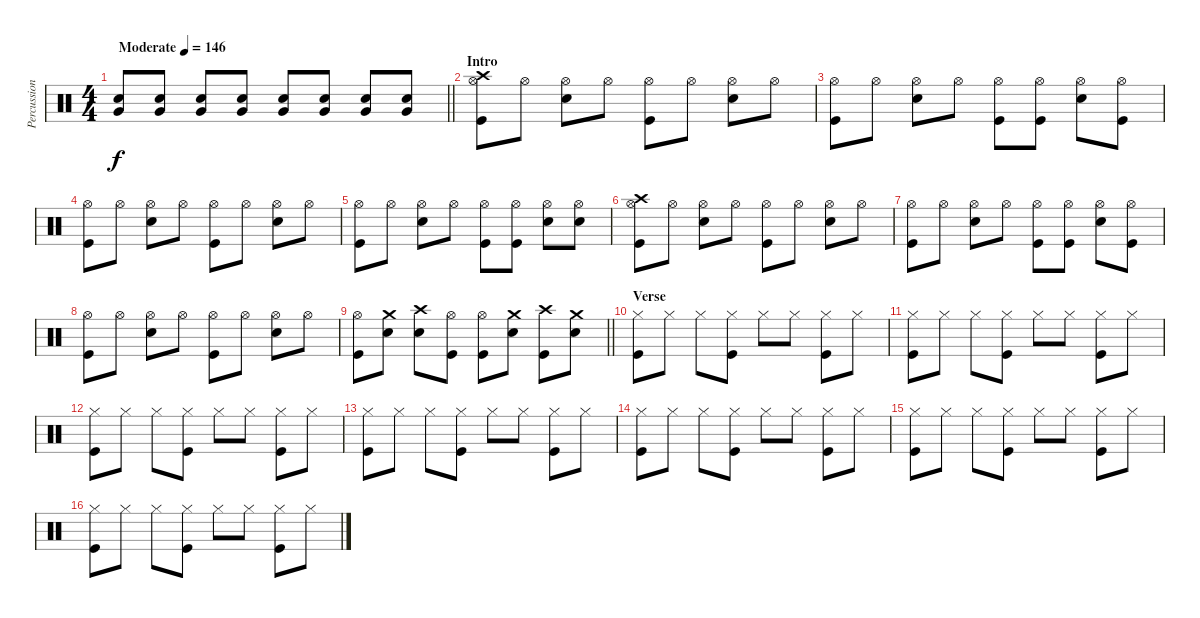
\track ("Percussion" "Percussion") {instrument percussion}
\staff {score}
\articulation defaults
\ts (4 4)
\tempo (146 "Moderate")
\clef neutral
\barLineRight lightlight
\ks c
("Snare (hit) 2" "Very Low Tom (hit)").8{dy f} ("Snare (hit) 2" "Very Low Tom (hit)").8 ("Snare (hit) 2" "Very Low Tom (hit)").8 ("Snare (hit) 2" "Very Low Tom (hit)").8 ("Snare (hit) 2" "Very Low Tom (hit)").8 ("Snare (hit) 2" "Very Low Tom (hit)").8 ("Snare (hit) 2" "Very Low Tom (hit)").8 ("Snare (hit) 2" "Very Low Tom (hit)").8 |
\section ("" "Intro")
("Crash high (hit)" "Hi-Hat (open)" "Kick (hit)").8 "Hi-Hat (open)".8 ("Hi-Hat (open)" "Snare (hit) 2").8 "Hi-Hat (open)".8 ("Hi-Hat (open)" "Kick (hit)").8 "Hi-Hat (open)".8 ("Hi-Hat (open)" "Snare (hit) 2").8 "Hi-Hat (open)".8 |
("Hi-Hat (open)" "Kick (hit)").8 "Hi-Hat (open)".8 ("Hi-Hat (open)" "Snare (hit) 2").8 "Hi-Hat (open)".8 ("Hi-Hat (open)" "Kick (hit)").8 ("Hi-Hat (open)" "Kick (hit)").8 ("Hi-Hat (open)" "Snare (hit) 2").8 ("Hi-Hat (open)" "Kick (hit)").8 |
("Hi-Hat (open)" "Kick (hit)").8 "Hi-Hat (open)".8 ("Hi-Hat (open)" "Snare (hit) 2").8 "Hi-Hat (open)".8 ("Hi-Hat (open)" "Kick (hit)").8 "Hi-Hat (open)".8 ("Hi-Hat (open)" "Snare (hit) 2").8 "Hi-Hat (open)".8 |
("Hi-Hat (open)" "Kick (hit)").8 "Hi-Hat (open)".8 ("Hi-Hat (open)" "Snare (hit) 2").8 "Hi-Hat (open)".8 ("Hi-Hat (open)" "Kick (hit)").8 ("Hi-Hat (open)" "Kick (hit)").8 ("Hi-Hat (open)" "Snare (hit) 2").8 ("Hi-Hat (open)" "Snare (hit) 2").8 |
("Crash high (hit)" "Hi-Hat (open)" "Kick (hit)").8 "Hi-Hat (open)".8 ("Hi-Hat (open)" "Snare (hit) 2").8 "Hi-Hat (open)".8 ("Hi-Hat (open)" "Kick (hit)").8 "Hi-Hat (open)".8 ("Hi-Hat (open)" "Snare (hit) 2").8 "Hi-Hat (open)".8 |
("Hi-Hat (open)" "Kick (hit)").8 "Hi-Hat (open)".8 ("Hi-Hat (open)" "Snare (hit) 2").8 "Hi-Hat (open)".8 ("Hi-Hat (open)" "Kick (hit)").8 ("Hi-Hat (open)" "Kick (hit)").8 ("Hi-Hat (open)" "Snare (hit) 2").8 ("Hi-Hat (open)" "Kick (hit)").8 |
("Hi-Hat (open)" "Kick (hit)").8 "Hi-Hat (open)".8 ("Hi-Hat (open)" "Snare (hit) 2").8 "Hi-Hat (open)".8 ("Hi-Hat (open)" "Kick (hit)").8 "Hi-Hat (open)".8 ("Hi-Hat (open)" "Snare (hit) 2").8 "Hi-Hat (open)".8 |
\barLineRight lightlight
("Hi-Hat (open)" "Kick (hit)").8 ("Crash medium (hit)" "Snare (hit) 2").8 ("Crash high (hit)" "Snare (hit) 2").8 ("Hi-Hat (open)" "Kick (hit)").8 ("Hi-Hat (open)" "Kick (hit)").8 ("Crash medium (hit)" "Snare (hit) 2").8 ("Crash high (hit)" "Kick (hit)").8 ("Crash medium (hit)" "Snare (hit) 2").8 |
\section ("" "Verse")
("Hi-Hat (closed)" "Kick (hit)").8 "Hi-Hat (closed)".8 "Hi-Hat (closed)".8 ("Hi-Hat (closed)" "Kick (hit)").8 "Hi-Hat (closed)".8 "Hi-Hat (closed)".8 ("Hi-Hat (closed)" "Kick (hit)").8 "Hi-Hat (closed)".8 |
("Hi-Hat (closed)" "Kick (hit)").8 "Hi-Hat (closed)".8 "Hi-Hat (closed)".8 ("Hi-Hat (closed)" "Kick (hit)").8 "Hi-Hat (closed)".8 "Hi-Hat (closed)".8 ("Hi-Hat (closed)" "Kick (hit)").8 "Hi-Hat (closed)".8 |
("Hi-Hat (closed)" "Kick (hit)").8 "Hi-Hat (closed)".8 "Hi-Hat (closed)".8 ("Hi-Hat (closed)" "Kick (hit)").8 "Hi-Hat (closed)".8 "Hi-Hat (closed)".8 ("Hi-Hat (closed)" "Kick (hit)").8 "Hi-Hat (closed)".8 |
("Hi-Hat (closed)" "Kick (hit)").8 "Hi-Hat (closed)".8 "Hi-Hat (closed)".8 ("Hi-Hat (closed)" "Kick (hit)").8 "Hi-Hat (closed)".8 "Hi-Hat (closed)".8 ("Hi-Hat (closed)" "Kick (hit)").8 "Hi-Hat (closed)".8 |
("Hi-Hat (closed)" "Kick (hit)").8 "Hi-Hat (closed)".8 "Hi-Hat (closed)".8 ("Hi-Hat (closed)" "Kick (hit)").8 "Hi-Hat (closed)".8 "Hi-Hat (closed)".8 ("Hi-Hat (closed)" "Kick (hit)").8 "Hi-Hat (closed)".8 |
("Hi-Hat (closed)" "Kick (hit)").8 "Hi-Hat (closed)".8 "Hi-Hat (closed)".8 ("Hi-Hat (closed)" "Kick (hit)").8 "Hi-Hat (closed)".8 "Hi-Hat (closed)".8 ("Hi-Hat (closed)" "Kick (hit)").8 "Hi-Hat (closed)".8 |
("Hi-Hat (closed)" "Kick (hit)").8 "Hi-Hat (closed)".8 "Hi-Hat (closed)".8 ("Hi-Hat (closed)" "Kick (hit)").8 "Hi-Hat (closed)".8 "Hi-Hat (closed)".8 ("Hi-Hat (closed)" "Kick (hit)").8 "Hi-Hat (closed)".8
